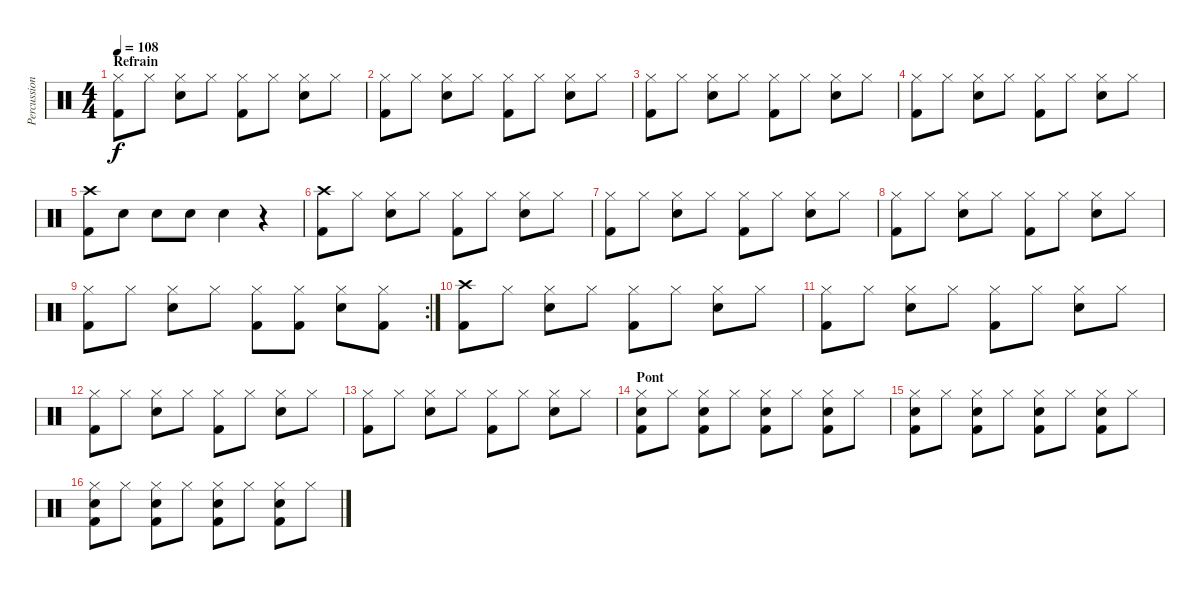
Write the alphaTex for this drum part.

\track ("Percussions" "Percussion") {instrument percussion}
\staff {score}
\articulation defaults
\ts (4 4)
\section ("" "Refrain")
\tempo 108
\clef neutral
\ks c
("Hi-Hat (closed)" "Kick (hit) 2").8{dy f} "Hi-Hat (closed)".8 ("Hi-Hat (closed)" "Snare (hit) 2").8 "Hi-Hat (closed)".8 ("Hi-Hat (closed)" "Kick (hit) 2").8 "Hi-Hat (closed)".8 ("Hi-Hat (closed)" "Snare (hit) 2").8 "Hi-Hat (closed)".8 |
("Hi-Hat (closed)" "Kick (hit) 2").8 "Hi-Hat (closed)".8 ("Hi-Hat (closed)" "Snare (hit) 2").8 "Hi-Hat (closed)".8 ("Hi-Hat (closed)" "Kick (hit) 2").8 "Hi-Hat (closed)".8 ("Hi-Hat (closed)" "Snare (hit) 2").8 "Hi-Hat (closed)".8 |
("Hi-Hat (closed)" "Kick (hit) 2").8 "Hi-Hat (closed)".8 ("Hi-Hat (closed)" "Snare (hit) 2").8 "Hi-Hat (closed)".8 ("Hi-Hat (closed)" "Kick (hit) 2").8 "Hi-Hat (closed)".8 ("Hi-Hat (closed)" "Snare (hit) 2").8 "Hi-Hat (closed)".8 |
("Hi-Hat (closed)" "Kick (hit) 2").8 "Hi-Hat (closed)".8 ("Hi-Hat (closed)" "Snare (hit) 2").8 "Hi-Hat (closed)".8 ("Hi-Hat (closed)" "Kick (hit) 2").8 "Hi-Hat (closed)".8 ("Hi-Hat (closed)" "Snare (hit) 2").8 "Hi-Hat (closed)".8 |
("Crash high (hit)" "Kick (hit) 2").8 "Snare (hit) 2".8 "Snare (hit) 2".8 "Snare (hit) 2".8 "Snare (hit) 2".4 r.4 |
("Crash high (hit)" "Kick (hit) 2").8 "Hi-Hat (closed)".8 ("Hi-Hat (closed)" "Snare (hit) 2").8 "Hi-Hat (closed)".8 ("Hi-Hat (closed)" "Kick (hit) 2").8 "Hi-Hat (closed)".8 ("Hi-Hat (closed)" "Snare (hit) 2").8 "Hi-Hat (closed)".8 |
("Hi-Hat (closed)" "Kick (hit) 2").8 "Hi-Hat (closed)".8 ("Hi-Hat (closed)" "Snare (hit) 2").8 "Hi-Hat (closed)".8 ("Hi-Hat (closed)" "Kick (hit) 2").8 "Hi-Hat (closed)".8 ("Hi-Hat (closed)" "Snare (hit) 2").8 "Hi-Hat (closed)".8 |
("Hi-Hat (closed)" "Kick (hit) 2").8 "Hi-Hat (closed)".8 ("Hi-Hat (closed)" "Snare (hit) 2").8 "Hi-Hat (closed)".8 ("Hi-Hat (closed)" "Kick (hit) 2").8 "Hi-Hat (closed)".8 ("Hi-Hat (closed)" "Snare (hit) 2").8 "Hi-Hat (closed)".8 |
\rc 2
("Hi-Hat (closed)" "Kick (hit) 2").8 "Hi-Hat (closed)".8 ("Hi-Hat (closed)" "Snare (hit) 2").8 "Hi-Hat (closed)".8 ("Hi-Hat (closed)" "Kick (hit) 2").8 ("Hi-Hat (closed)" "Kick (hit) 2").8 ("Hi-Hat (closed)" "Snare (hit) 2").8 ("Hi-Hat (closed)" "Kick (hit) 2").8 |
("Crash high (hit)" "Kick (hit) 2").8 "Hi-Hat (closed)".8 ("Hi-Hat (closed)" "Snare (hit) 2").8 "Hi-Hat (closed)".8 ("Hi-Hat (closed)" "Kick (hit) 2").8 "Hi-Hat (closed)".8 ("Hi-Hat (closed)" "Snare (hit) 2").8 "Hi-Hat (closed)".8 |
("Hi-Hat (closed)" "Kick (hit) 2").8 "Hi-Hat (closed)".8 ("Hi-Hat (closed)" "Snare (hit) 2").8 "Hi-Hat (closed)".8 ("Hi-Hat (closed)" "Kick (hit) 2").8 "Hi-Hat (closed)".8 ("Hi-Hat (closed)" "Snare (hit) 2").8 "Hi-Hat (closed)".8 |
("Hi-Hat (closed)" "Kick (hit) 2").8 "Hi-Hat (closed)".8 ("Hi-Hat (closed)" "Snare (hit) 2").8 "Hi-Hat (closed)".8 ("Hi-Hat (closed)" "Kick (hit) 2").8 "Hi-Hat (closed)".8 ("Hi-Hat (closed)" "Snare (hit) 2").8 "Hi-Hat (closed)".8 |
("Hi-Hat (closed)" "Kick (hit) 2").8 "Hi-Hat (closed)".8 ("Hi-Hat (closed)" "Snare (hit) 2").8 "Hi-Hat (closed)".8 ("Hi-Hat (closed)" "Kick (hit) 2").8 "Hi-Hat (closed)".8 ("Hi-Hat (closed)" "Snare (hit) 2").8 "Hi-Hat (closed)".8 |
\section ("" "Pont")
("Hi-Hat (closed)" "Snare (hit) 2" "Kick (hit) 2").8 "Hi-Hat (closed)".8 ("Hi-Hat (closed)" "Snare (hit) 2" "Kick (hit) 2").8 "Hi-Hat (closed)".8 ("Hi-Hat (closed)" "Snare (hit) 2" "Kick (hit) 2").8 "Hi-Hat (closed)".8 ("Hi-Hat (closed)" "Snare (hit) 2" "Kick (hit) 2").8 "Hi-Hat (closed)".8 |
("Hi-Hat (closed)" "Snare (hit) 2" "Kick (hit) 2").8 "Hi-Hat (closed)".8 ("Hi-Hat (closed)" "Snare (hit) 2" "Kick (hit) 2").8 "Hi-Hat (closed)".8 ("Hi-Hat (closed)" "Snare (hit) 2" "Kick (hit) 2").8 "Hi-Hat (closed)".8 ("Hi-Hat (closed)" "Snare (hit) 2" "Kick (hit) 2").8 "Hi-Hat (closed)".8 |
("Hi-Hat (closed)" "Snare (hit) 2" "Kick (hit) 2").8 "Hi-Hat (closed)".8 ("Hi-Hat (closed)" "Snare (hit) 2" "Kick (hit) 2").8 "Hi-Hat (closed)".8 ("Hi-Hat (closed)" "Snare (hit) 2" "Kick (hit) 2").8 "Hi-Hat (closed)".8 ("Hi-Hat (closed)" "Snare (hit) 2" "Kick (hit) 2").8 "Hi-Hat (closed)".8
